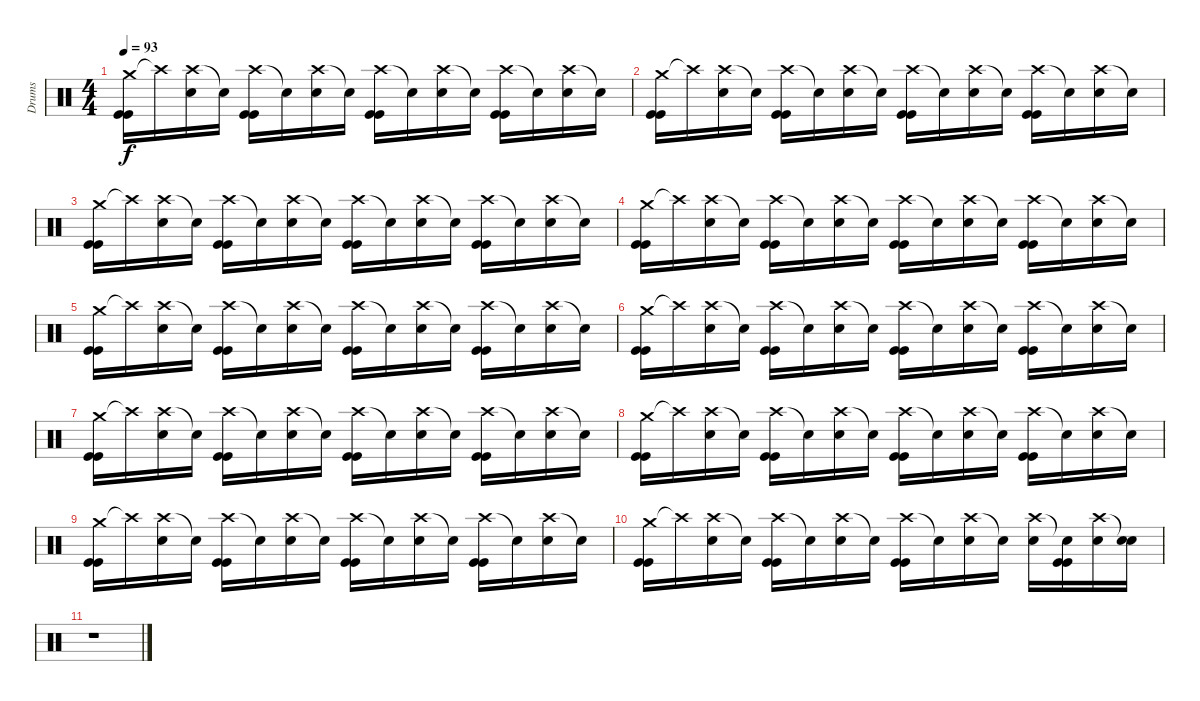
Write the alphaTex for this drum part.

\track ("Drums " "Drums ") {instrument percussion}
\staff {score}
\articulation defaults
\ts (4 4)
\tempo 93
\clef neutral
\ks c
("Crash medium (hit)" "Kick (hit)" "Kick (hit)").16{dy f} "Crash high (hit)"{t}.16 ("Crash high (hit)" "Snare (hit) 2").16 "Snare (hit)"{t}.16 ("Crash high (hit)" "Kick (hit)" "Kick (hit)").16 "Snare (hit)"{t}.16 ("Crash high (hit)" "Snare (hit) 2").16 "Snare (hit)"{t}.16 ("Crash high (hit)" "Kick (hit)" "Kick (hit)").16 "Snare (hit)"{t}.16 ("Crash high (hit)" "Snare (hit) 2").16 "Snare (hit)"{t}.16 ("Crash high (hit)" "Kick (hit)" "Kick (hit)").16 "Snare (hit)"{t}.16 ("Crash high (hit)" "Snare (hit) 2").16 "Snare (hit)"{t}.16 |
("Crash medium (hit)" "Kick (hit)" "Kick (hit)").16 "Crash high (hit)"{t}.16 ("Crash high (hit)" "Snare (hit) 2").16 "Snare (hit)"{t}.16 ("Crash high (hit)" "Kick (hit)" "Kick (hit)").16 "Snare (hit)"{t}.16 ("Crash high (hit)" "Snare (hit) 2").16 "Snare (hit)"{t}.16 ("Crash high (hit)" "Kick (hit)" "Kick (hit)").16 "Snare (hit)"{t}.16 ("Crash high (hit)" "Snare (hit) 2").16 "Snare (hit)"{t}.16 ("Crash high (hit)" "Kick (hit)" "Kick (hit)").16 "Snare (hit)"{t}.16 ("Crash high (hit)" "Snare (hit) 2").16 "Snare (hit)"{t}.16 |
("Crash medium (hit)" "Kick (hit)" "Kick (hit)").16 "Crash high (hit)"{t}.16 ("Crash high (hit)" "Snare (hit) 2").16 "Snare (hit)"{t}.16 ("Crash high (hit)" "Kick (hit)" "Kick (hit)").16 "Snare (hit)"{t}.16 ("Crash high (hit)" "Snare (hit) 2").16 "Snare (hit)"{t}.16 ("Crash high (hit)" "Kick (hit)" "Kick (hit)").16 "Snare (hit)"{t}.16 ("Crash high (hit)" "Snare (hit) 2").16 "Snare (hit)"{t}.16 ("Crash high (hit)" "Kick (hit)" "Kick (hit)").16 "Snare (hit)"{t}.16 ("Crash high (hit)" "Snare (hit) 2").16 "Snare (hit)"{t}.16 |
("Crash medium (hit)" "Kick (hit)" "Kick (hit)").16 "Crash high (hit)"{t}.16 ("Crash high (hit)" "Snare (hit) 2").16 "Snare (hit)"{t}.16 ("Crash high (hit)" "Kick (hit)" "Kick (hit)").16 "Snare (hit)"{t}.16 ("Crash high (hit)" "Snare (hit) 2").16 "Snare (hit)"{t}.16 ("Crash high (hit)" "Kick (hit)" "Kick (hit)").16 "Snare (hit)"{t}.16 ("Crash high (hit)" "Snare (hit) 2").16 "Snare (hit)"{t}.16 ("Crash high (hit)" "Kick (hit)" "Kick (hit)").16 "Snare (hit)"{t}.16 ("Crash high (hit)" "Snare (hit) 2").16 "Snare (hit)"{t}.16 |
("Crash medium (hit)" "Kick (hit)" "Kick (hit)").16 "Crash high (hit)"{t}.16 ("Crash high (hit)" "Snare (hit) 2").16 "Snare (hit)"{t}.16 ("Crash high (hit)" "Kick (hit)" "Kick (hit)").16 "Snare (hit)"{t}.16 ("Crash high (hit)" "Snare (hit) 2").16 "Snare (hit)"{t}.16 ("Crash high (hit)" "Kick (hit)" "Kick (hit)").16 "Snare (hit)"{t}.16 ("Crash high (hit)" "Snare (hit) 2").16 "Snare (hit)"{t}.16 ("Crash high (hit)" "Kick (hit)" "Kick (hit)").16 "Snare (hit)"{t}.16 ("Crash high (hit)" "Snare (hit) 2").16 "Snare (hit)"{t}.16 |
("Crash medium (hit)" "Kick (hit)" "Kick (hit)").16 "Crash high (hit)"{t}.16 ("Crash high (hit)" "Snare (hit) 2").16 "Snare (hit)"{t}.16 ("Crash high (hit)" "Kick (hit)" "Kick (hit)").16 "Snare (hit)"{t}.16 ("Crash high (hit)" "Snare (hit) 2").16 "Snare (hit)"{t}.16 ("Crash high (hit)" "Kick (hit)" "Kick (hit)").16 "Snare (hit)"{t}.16 ("Crash high (hit)" "Snare (hit) 2").16 "Snare (hit)"{t}.16 ("Crash high (hit)" "Kick (hit)" "Kick (hit)").16 "Snare (hit)"{t}.16 ("Crash high (hit)" "Snare (hit) 2").16 "Snare (hit)"{t}.16 |
("Crash medium (hit)" "Kick (hit)" "Kick (hit)").16 "Crash high (hit)"{t}.16 ("Crash high (hit)" "Snare (hit) 2").16 "Snare (hit)"{t}.16 ("Crash high (hit)" "Kick (hit)" "Kick (hit)").16 "Snare (hit)"{t}.16 ("Crash high (hit)" "Snare (hit) 2").16 "Snare (hit)"{t}.16 ("Crash high (hit)" "Kick (hit)" "Kick (hit)").16 "Snare (hit)"{t}.16 ("Crash high (hit)" "Snare (hit) 2").16 "Snare (hit)"{t}.16 ("Crash high (hit)" "Kick (hit)" "Kick (hit)").16 "Snare (hit)"{t}.16 ("Crash high (hit)" "Snare (hit) 2").16 "Snare (hit)"{t}.16 |
("Crash medium (hit)" "Kick (hit)" "Kick (hit)").16 "Crash high (hit)"{t}.16 ("Crash high (hit)" "Snare (hit) 2").16 "Snare (hit)"{t}.16 ("Crash high (hit)" "Kick (hit)" "Kick (hit)").16 "Snare (hit)"{t}.16 ("Crash high (hit)" "Snare (hit) 2").16 "Snare (hit)"{t}.16 ("Crash high (hit)" "Kick (hit)" "Kick (hit)").16 "Snare (hit)"{t}.16 ("Crash high (hit)" "Snare (hit) 2").16 "Snare (hit)"{t}.16 ("Crash high (hit)" "Kick (hit)" "Kick (hit)").16 "Snare (hit)"{t}.16 ("Crash high (hit)" "Snare (hit) 2").16 "Snare (hit)"{t}.16 |
("Crash medium (hit)" "Kick (hit)" "Kick (hit)").16 "Crash high (hit)"{t}.16 ("Crash high (hit)" "Snare (hit) 2").16 "Snare (hit)"{t}.16 ("Crash high (hit)" "Kick (hit)" "Kick (hit)").16 "Snare (hit)"{t}.16 ("Crash high (hit)" "Snare (hit) 2").16 "Snare (hit)"{t}.16 ("Crash high (hit)" "Kick (hit)" "Kick (hit)").16 "Snare (hit)"{t}.16 ("Crash high (hit)" "Snare (hit) 2").16 "Snare (hit)"{t}.16 ("Crash high (hit)" "Kick (hit)" "Kick (hit)").16 "Snare (hit)"{t}.16 ("Crash high (hit)" "Snare (hit) 2").16 "Snare (hit)"{t}.16 |
("Crash medium (hit)" "Kick (hit)" "Kick (hit)").16 "Crash high (hit)"{t}.16 ("Crash high (hit)" "Snare (hit) 2").16 "Snare (hit)"{t}.16 ("Crash high (hit)" "Kick (hit)" "Kick (hit)").16 "Snare (hit)"{t}.16 ("Crash high (hit)" "Snare (hit) 2").16 "Snare (hit)"{t}.16 ("Crash high (hit)" "Kick (hit)" "Kick (hit)").16 "Snare (hit)"{t}.16 ("Crash high (hit)" "Snare (hit) 2").16 "Snare (hit)"{t}.16 ("Crash high (hit)" "Snare (hit) 2").16 ("Snare (hit)"{t} "Kick (hit)" "Kick (hit)").16 ("Crash high (hit)" "Snare (hit) 2").16 ("Snare (hit)"{t} "Snare (hit) 2").16 |
r.1
